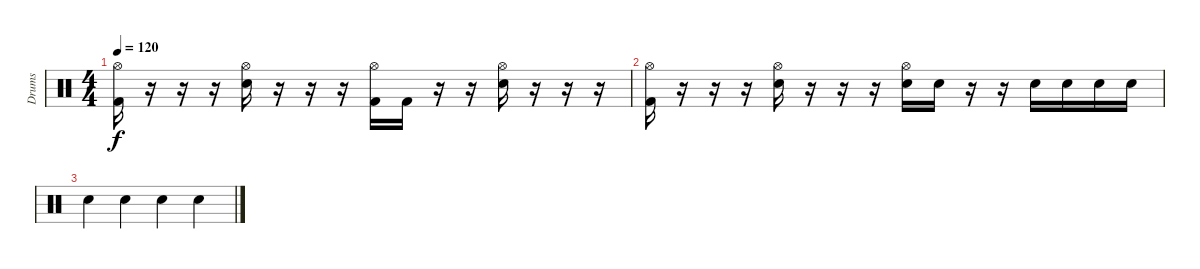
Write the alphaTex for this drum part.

\track ("Drums" "Drums") {instrument percussion}
\staff {score}
\articulation defaults
\ts (4 4)
\tempo 120
\clef neutral
\ks c
("Hi-Hat (open)" "Kick (hit) 2").16{dy f} r.16 r.16 r.16 ("Hi-Hat (open)" "Electric Snare (hit)").16 r.16 r.16 r.16 ("Hi-Hat (open)" "Kick (hit) 2").16 "Kick (hit) 2".16 r.16 r.16 ("Hi-Hat (open)" "Electric Snare (hit)").16 r.16 r.16 r.16 |
("Hi-Hat (open)" "Kick (hit) 2").16 r.16 r.16 r.16 ("Hi-Hat (open)" "Electric Snare (hit)").16 r.16 r.16 r.16 ("Hi-Hat (open)" "Electric Snare (hit)").16 "Electric Snare (hit)".16 r.16 r.16 "Electric Snare (hit)".16 "Electric Snare (hit)".16 "Electric Snare (hit)".16 "Electric Snare (hit)".16 |
"Hand Clap (hit)".4 "Hand Clap (hit)".4 "Hand Clap (hit)".4 "Hand Clap (hit)".4
